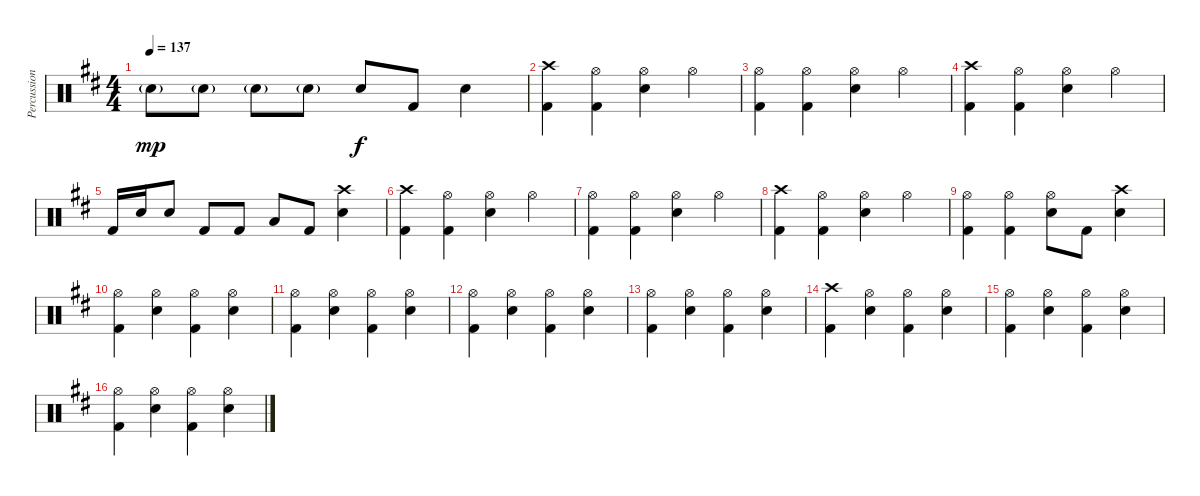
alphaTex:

\track ("Percussion" "Percussion") {instrument percussion}
\staff {score}
\articulation defaults
\ts (4 4)
\tempo 137
\clef neutral
\ks d "Snare (hit) 2"{g}.8{dy mp} "Snare (hit) 2"{g}.8 "Snare (hit) 2"{g}.8 "Snare (hit) 2"{g}.8 "Snare (hit) 2".8{dy f} "Kick (hit) 2".8 "Snare (hit) 2".4
|
("Crash high (hit)" "Kick (hit) 2").4 ("Hi-Hat (open)" "Kick (hit) 2").4 ("Hi-Hat (open)" "Snare (hit) 2").4 "Hi-Hat (open)".4 |
("Hi-Hat (open)" "Kick (hit) 2").4 ("Hi-Hat (open)" "Kick (hit) 2").4 ("Hi-Hat (open)" "Snare (hit) 2").4 "Hi-Hat (open)".4 |
("Crash high (hit)" "Kick (hit) 2").4 ("Hi-Hat (open)" "Kick (hit) 2").4 ("Hi-Hat (open)" "Snare (hit) 2").4 "Hi-Hat (open)".4 |
"Kick (hit) 2".16 "Snare (hit) 2".16 "Snare (hit) 2".8 "Kick (hit) 2".8 "Kick (hit) 2".8 "Low Tom (hit)".8 "Kick (hit) 2".8 ("Crash high (hit)" "Snare (hit) 2").4 |
("Crash high (hit)" "Kick (hit) 2").4 ("Hi-Hat (open)" "Kick (hit) 2").4 ("Hi-Hat (open)" "Snare (hit) 2").4 "Hi-Hat (open)".4 |
("Hi-Hat (open)" "Kick (hit) 2").4 ("Hi-Hat (open)" "Kick (hit) 2").4 ("Hi-Hat (open)" "Snare (hit) 2").4 "Hi-Hat (open)".4 |
("Crash high (hit)" "Kick (hit) 2").4 ("Hi-Hat (open)" "Kick (hit) 2").4 ("Hi-Hat (open)" "Snare (hit) 2").4 "Hi-Hat (open)".4 |
("Hi-Hat (open)" "Kick (hit) 2").4 ("Hi-Hat (open)" "Kick (hit) 2").4 ("Hi-Hat (open)" "Snare (hit) 2").8 "Kick (hit) 2".8 ("Crash high (hit)" "Snare (hit) 2").4 |
("Hi-Hat (open)" "Kick (hit) 2").4 ("Hi-Hat (open)" "Snare (hit) 2").4 ("Hi-Hat (open)" "Kick (hit) 2").4 ("Hi-Hat (open)" "Snare (hit) 2").4 |
("Hi-Hat (open)" "Kick (hit) 2").4 ("Hi-Hat (open)" "Snare (hit) 2").4 ("Hi-Hat (open)" "Kick (hit) 2").4 ("Hi-Hat (open)" "Snare (hit) 2").4 |
("Hi-Hat (open)" "Kick (hit) 2").4 ("Hi-Hat (open)" "Snare (hit) 2").4 ("Hi-Hat (open)" "Kick (hit) 2").4 ("Hi-Hat (open)" "Snare (hit) 2").4 |
("Hi-Hat (open)" "Kick (hit) 2").4 ("Hi-Hat (open)" "Snare (hit) 2").4 ("Hi-Hat (open)" "Kick (hit) 2").4 ("Hi-Hat (open)" "Snare (hit) 2").4 |
("Crash high (hit)" "Kick (hit) 2").4 ("Hi-Hat (open)" "Snare (hit) 2").4 ("Hi-Hat (open)" "Kick (hit) 2").4 ("Hi-Hat (open)" "Snare (hit) 2").4 |
("Hi-Hat (open)" "Kick (hit) 2").4 ("Hi-Hat (open)" "Snare (hit) 2").4 ("Hi-Hat (open)" "Kick (hit) 2").4 ("Hi-Hat (open)" "Snare (hit) 2").4 |
("Hi-Hat (open)" "Kick (hit) 2").4 ("Hi-Hat (open)" "Snare (hit) 2").4 ("Hi-Hat (open)" "Kick (hit) 2").4 ("Hi-Hat (open)" "Snare (hit) 2").4
